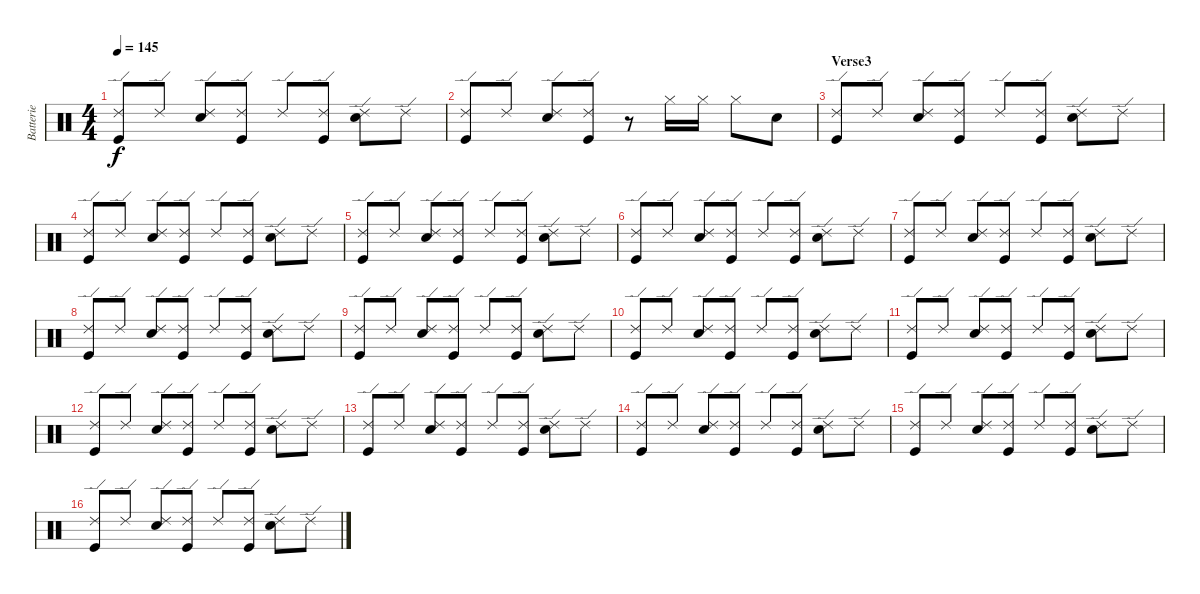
\track ("Batterie" "Batterie") {instrument percussion}
\staff {score}
\articulation defaults
\ts (4 4)
\tempo 145
\clef neutral
\ks c
("Ride (edge) 2" "Kick (hit)").8{dy f} "Ride (edge) 2".8 ("Ride (edge) 2" "Snare (hit) 2").8 ("Ride (edge) 2" "Kick (hit)").8 "Ride (edge) 2".8 ("Ride (edge) 2" "Kick (hit)").8 ("Ride (edge) 2" "Snare (hit) 2").8 "Ride (edge) 2".8 |
("Ride (edge) 2" "Kick (hit)").8 "Ride (edge) 2".8 ("Ride (edge) 2" "Snare (hit) 2").8 ("Ride (edge) 2" "Kick (hit)").8 r.8 "Hi-Hat (closed)".16 "Hi-Hat (closed)".16 "Hi-Hat (closed)".8 "Electric Snare (hit)".8 |
\section ("" "Verse3")
("Ride (edge) 2" "Kick (hit)").8 "Ride (edge) 2".8 ("Ride (edge) 2" "Snare (hit) 2").8 ("Ride (edge) 2" "Kick (hit)").8 "Ride (edge) 2".8 ("Ride (edge) 2" "Kick (hit)").8 ("Ride (edge) 2" "Snare (hit) 2").8 "Ride (edge) 2".8 |
("Ride (edge) 2" "Kick (hit)").8 "Ride (edge) 2".8 ("Ride (edge) 2" "Snare (hit) 2").8 ("Ride (edge) 2" "Kick (hit)").8 "Ride (edge) 2".8 ("Ride (edge) 2" "Kick (hit)").8 ("Ride (edge) 2" "Snare (hit) 2").8 "Ride (edge) 2".8 |
("Ride (edge) 2" "Kick (hit)").8 "Ride (edge) 2".8 ("Ride (edge) 2" "Snare (hit) 2").8 ("Ride (edge) 2" "Kick (hit)").8 "Ride (edge) 2".8 ("Ride (edge) 2" "Kick (hit)").8 ("Ride (edge) 2" "Snare (hit) 2").8 "Ride (edge) 2".8 |
("Ride (edge) 2" "Kick (hit)").8 "Ride (edge) 2".8 ("Ride (edge) 2" "Snare (hit) 2").8 ("Ride (edge) 2" "Kick (hit)").8 "Ride (edge) 2".8 ("Ride (edge) 2" "Kick (hit)").8 ("Ride (edge) 2" "Snare (hit) 2").8 "Ride (edge) 2".8 |
("Ride (edge) 2" "Kick (hit)").8 "Ride (edge) 2".8 ("Ride (edge) 2" "Snare (hit) 2").8 ("Ride (edge) 2" "Kick (hit)").8 "Ride (edge) 2".8 ("Ride (edge) 2" "Kick (hit)").8 ("Ride (edge) 2" "Snare (hit) 2").8 "Ride (edge) 2".8 |
("Ride (edge) 2" "Kick (hit)").8 "Ride (edge) 2".8 ("Ride (edge) 2" "Snare (hit) 2").8 ("Ride (edge) 2" "Kick (hit)").8 "Ride (edge) 2".8 ("Ride (edge) 2" "Kick (hit)").8 ("Ride (edge) 2" "Snare (hit) 2").8 "Ride (edge) 2".8 |
("Ride (edge) 2" "Kick (hit)").8 "Ride (edge) 2".8 ("Ride (edge) 2" "Snare (hit) 2").8 ("Ride (edge) 2" "Kick (hit)").8 "Ride (edge) 2".8 ("Ride (edge) 2" "Kick (hit)").8 ("Ride (edge) 2" "Snare (hit) 2").8 "Ride (edge) 2".8 |
("Ride (edge) 2" "Kick (hit)").8 "Ride (edge) 2".8 ("Ride (edge) 2" "Snare (hit) 2").8 ("Ride (edge) 2" "Kick (hit)").8 "Ride (edge) 2".8 ("Ride (edge) 2" "Kick (hit)").8 ("Ride (edge) 2" "Snare (hit) 2").8 "Ride (edge) 2".8 |
("Ride (edge) 2" "Kick (hit)").8 "Ride (edge) 2".8 ("Ride (edge) 2" "Snare (hit) 2").8 ("Ride (edge) 2" "Kick (hit)").8 "Ride (edge) 2".8 ("Ride (edge) 2" "Kick (hit)").8 ("Ride (edge) 2" "Snare (hit) 2").8 "Ride (edge) 2".8 |
("Ride (edge) 2" "Kick (hit)").8 "Ride (edge) 2".8 ("Ride (edge) 2" "Snare (hit) 2").8 ("Ride (edge) 2" "Kick (hit)").8 "Ride (edge) 2".8 ("Ride (edge) 2" "Kick (hit)").8 ("Ride (edge) 2" "Snare (hit) 2").8 "Ride (edge) 2".8 |
("Ride (edge) 2" "Kick (hit)").8 "Ride (edge) 2".8 ("Ride (edge) 2" "Snare (hit) 2").8 ("Ride (edge) 2" "Kick (hit)").8 "Ride (edge) 2".8 ("Ride (edge) 2" "Kick (hit)").8 ("Ride (edge) 2" "Snare (hit) 2").8 "Ride (edge) 2".8 |
("Ride (edge) 2" "Kick (hit)").8 "Ride (edge) 2".8 ("Ride (edge) 2" "Snare (hit) 2").8 ("Ride (edge) 2" "Kick (hit)").8 "Ride (edge) 2".8 ("Ride (edge) 2" "Kick (hit)").8 ("Ride (edge) 2" "Snare (hit) 2").8 "Ride (edge) 2".8 |
("Ride (edge) 2" "Kick (hit)").8 "Ride (edge) 2".8 ("Ride (edge) 2" "Snare (hit) 2").8 ("Ride (edge) 2" "Kick (hit)").8 "Ride (edge) 2".8 ("Ride (edge) 2" "Kick (hit)").8 ("Ride (edge) 2" "Snare (hit) 2").8 "Ride (edge) 2".8 |
("Ride (edge) 2" "Kick (hit)").8 "Ride (edge) 2".8 ("Ride (edge) 2" "Snare (hit) 2").8 ("Ride (edge) 2" "Kick (hit)").8 "Ride (edge) 2".8 ("Ride (edge) 2" "Kick (hit)").8 ("Ride (edge) 2" "Snare (hit) 2").8 "Ride (edge) 2".8
